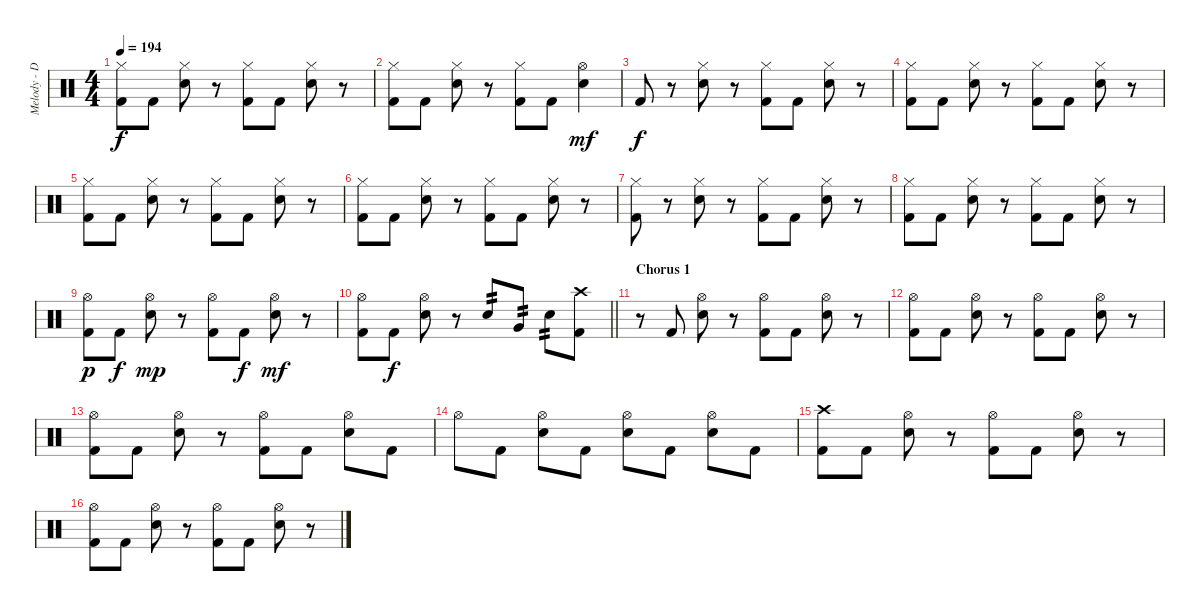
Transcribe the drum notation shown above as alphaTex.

\track ("Melody - Drums" "Melody - D") {instrument percussion}
\staff {score}
\articulation defaults
\ts (4 4)
\tempo 194
\clef neutral
\ks c
("Hi-Hat (closed)" "Kick (hit) 2").8{dy f} "Kick (hit) 2".8 ("Hi-Hat (closed)" "Electric Snare (hit)").8 r.8 ("Hi-Hat (closed)" "Kick (hit) 2").8 "Kick (hit) 2".8 ("Hi-Hat (closed)" "Electric Snare (hit)").8 r.8 |
("Hi-Hat (closed)" "Kick (hit) 2").8 "Kick (hit) 2".8 ("Hi-Hat (closed)" "Electric Snare (hit)").8 r.8 ("Hi-Hat (closed)" "Kick (hit) 2").8 "Kick (hit) 2".8 ("Hi-Hat (open)" "Electric Snare (hit)").4{dy mf} |
"Kick (hit) 2".8{dy f} r.8 ("Hi-Hat (closed)" "Electric Snare (hit)").8 r.8 ("Hi-Hat (closed)" "Kick (hit) 2").8 "Kick (hit) 2".8 ("Hi-Hat (closed)" "Electric Snare (hit)").8 r.8 |
("Hi-Hat (closed)" "Kick (hit) 2").8 "Kick (hit) 2".8 ("Hi-Hat (closed)" "Electric Snare (hit)").8 r.8 ("Hi-Hat (closed)" "Kick (hit) 2").8 "Kick (hit) 2".8 ("Hi-Hat (closed)" "Electric Snare (hit)").8 r.8 |
("Hi-Hat (closed)" "Kick (hit) 2").8 "Kick (hit) 2".8 ("Hi-Hat (closed)" "Electric Snare (hit)").8 r.8 ("Hi-Hat (closed)" "Kick (hit) 2").8 "Kick (hit) 2".8 ("Hi-Hat (closed)" "Electric Snare (hit)").8 r.8 |
("Hi-Hat (closed)" "Kick (hit) 2").8 "Kick (hit) 2".8 ("Hi-Hat (closed)" "Electric Snare (hit)").8 r.8 ("Hi-Hat (closed)" "Kick (hit) 2").8 "Kick (hit) 2".8 ("Hi-Hat (closed)" "Electric Snare (hit)").8 r.8 |
("Hi-Hat (closed)" "Kick (hit) 2").8 r.8 ("Hi-Hat (closed)" "Electric Snare (hit)").8 r.8 ("Hi-Hat (closed)" "Kick (hit) 2").8 "Kick (hit) 2".8 ("Hi-Hat (closed)" "Electric Snare (hit)").8 r.8 |
("Hi-Hat (closed)" "Kick (hit) 2").8 "Kick (hit) 2".8 ("Hi-Hat (closed)" "Electric Snare (hit)").8 r.8 ("Hi-Hat (closed)" "Kick (hit) 2").8 "Kick (hit) 2".8 ("Hi-Hat (closed)" "Electric Snare (hit)").8 r.8 |
("Hi-Hat (open)" "Kick (hit) 2").8{dy p} "Kick (hit) 2".8{dy f} ("Hi-Hat (open)" "Electric Snare (hit)").8{dy mp} r.8 ("Hi-Hat (open)" "Kick (hit) 2").8 "Kick (hit) 2".8{dy f} ("Hi-Hat (open)" "Electric Snare (hit)").8{dy mf} r.8 |
\barLineRight lightlight
("Hi-Hat (open)" "Kick (hit) 2").8 "Kick (hit) 2".8{dy f} ("Hi-Hat (open)" "Electric Snare (hit)").8 r.8 "Electric Snare (hit)".8{tp 2} "Very Low Tom (hit)".8{tp 2} "Electric Snare (hit)".8{tp 2} ("Crash high (hit)" "Kick (hit) 2").8 |
\section ("" "Chorus 1")
r.8 "Kick (hit) 2".8 ("Hi-Hat (open)" "Electric Snare (hit)").8 r.8 ("Hi-Hat (open)" "Kick (hit) 2").8 "Kick (hit) 2".8 ("Hi-Hat (open)" "Electric Snare (hit)").8 r.8 |
("Hi-Hat (open)" "Kick (hit) 2").8 "Kick (hit) 2".8 ("Hi-Hat (open)" "Electric Snare (hit)").8 r.8 ("Hi-Hat (open)" "Kick (hit) 2").8 "Kick (hit) 2".8 ("Hi-Hat (open)" "Electric Snare (hit)").8 r.8 |
("Hi-Hat (open)" "Kick (hit) 2").8 "Kick (hit) 2".8 ("Hi-Hat (open)" "Electric Snare (hit)").8 r.8 ("Hi-Hat (open)" "Kick (hit) 2").8 "Kick (hit) 2".8 ("Hi-Hat (open)" "Electric Snare (hit)").8 "Kick (hit) 2".8 |
"Hi-Hat (open)".8 "Kick (hit) 2".8 ("Hi-Hat (open)" "Electric Snare (hit)").8 "Kick (hit) 2".8 ("Hi-Hat (open)" "Electric Snare (hit)").8 "Kick (hit) 2".8 ("Hi-Hat (open)" "Electric Snare (hit)").8 "Kick (hit) 2".8 |
("Crash high (hit)" "Kick (hit) 2").8 "Kick (hit) 2".8 ("Hi-Hat (open)" "Electric Snare (hit)").8 r.8 ("Hi-Hat (open)" "Kick (hit) 2").8 "Kick (hit) 2".8 ("Hi-Hat (open)" "Electric Snare (hit)").8 r.8 |
("Hi-Hat (open)" "Kick (hit) 2").8 "Kick (hit) 2".8 ("Hi-Hat (open)" "Electric Snare (hit)").8 r.8 ("Hi-Hat (open)" "Kick (hit) 2").8 "Kick (hit) 2".8 ("Hi-Hat (open)" "Electric Snare (hit)").8 r.8
